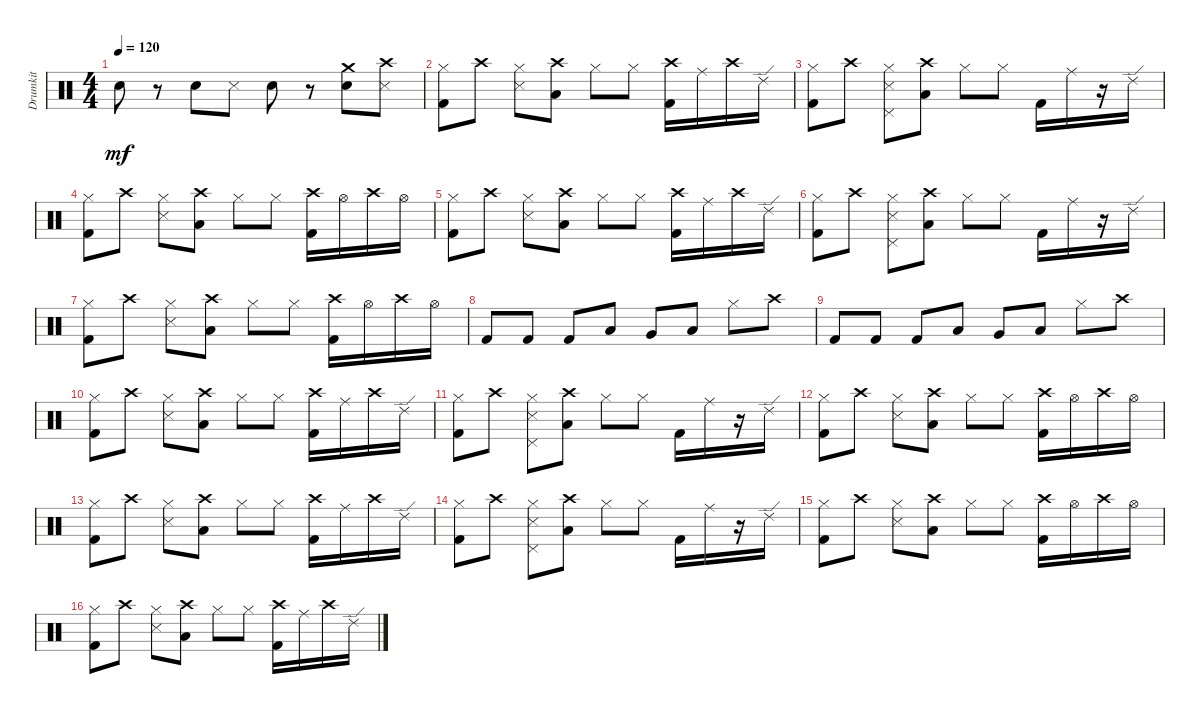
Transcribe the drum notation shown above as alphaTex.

\track ("Drumkit" "Drumkit") {instrument percussion}
\staff {score}
\articulation defaults
\ts (4 4)
\tempo 120
\clef neutral
\ks c "Snare (hit) 2".8{dy mf}
r.8 "Snare (hit) 2".8 "Snare (side stick) 3".8 "Snare (hit) 2".8 r.8 ("Snare (hit) 2" "Crash medium (hit)").8 ("Snare (side stick) 3" "Crash high (hit)").8 |
("Hi-Hat (closed)" "Kick (hit) 2").8 "Crash high (hit)".8 ("Hi-Hat (closed)" "Snare (side stick) 3").8 ("Crash high (hit)" "Low Floor Tom (hit)").8 "Hi-Hat (closed)".8 "Hi-Hat (closed)".8 ("Crash high (hit)" "Kick (hit) 2").16 "Ride (middle)".16 "Crash high (hit)".16 "Ride (edge) 2".16 |
("Hi-Hat (closed)" "Kick (hit) 2").8 "Crash high (hit)".8 ("Hi-Hat (closed)" "Snare (side stick) 3" "Pedal Hi-Hat (hit)").8 ("Crash high (hit)" "Low Floor Tom (hit)").8 "Hi-Hat (closed)".8 "Hi-Hat (closed)".8 "Kick (hit) 2".16 "Ride (middle)".16 r.16 "Ride (edge) 2".16 |
("Hi-Hat (closed)" "Kick (hit) 2").8 "Crash high (hit)".8 ("Hi-Hat (closed)" "Snare (side stick) 3").8 ("Crash high (hit)" "Low Floor Tom (hit)").8 "Hi-Hat (closed)".8 "Hi-Hat (closed)".8 ("Crash high (hit)" "Kick (hit) 2").16 "Hi-Hat (open)".16 "Crash high (hit)".16 "Hi-Hat (open)".16 |
("Hi-Hat (closed)" "Kick (hit) 2").8 "Crash high (hit)".8 ("Hi-Hat (closed)" "Snare (side stick) 3").8 ("Crash high (hit)" "Low Floor Tom (hit)").8 "Hi-Hat (closed)".8 "Hi-Hat (closed)".8 ("Crash high (hit)" "Kick (hit) 2").16 "Ride (middle)".16 "Crash high (hit)".16 "Ride (edge) 2".16 |
("Hi-Hat (closed)" "Kick (hit) 2").8 "Crash high (hit)".8 ("Hi-Hat (closed)" "Snare (side stick) 3" "Pedal Hi-Hat (hit)").8 ("Crash high (hit)" "Low Floor Tom (hit)").8 "Hi-Hat (closed)".8 "Hi-Hat (closed)".8 "Kick (hit) 2".16 "Ride (middle)".16 r.16 "Ride (edge) 2".16 |
("Hi-Hat (closed)" "Kick (hit) 2").8 "Crash high (hit)".8 ("Hi-Hat (closed)" "Snare (side stick) 3").8 ("Crash high (hit)" "Low Floor Tom (hit)").8 "Hi-Hat (closed)".8 "Hi-Hat (closed)".8 ("Crash high (hit)" "Kick (hit) 2").16 "Hi-Hat (open)".16 "Crash high (hit)".16 "Hi-Hat (open)".16 |
"Kick (hit) 2".8 "Kick (hit) 2".8 "Kick (hit) 2".8 "Low Floor Tom (hit)".8 "Very Low Tom (hit)".8 "Low Tom (hit)".8 "Hi-Hat (closed)".8 "Crash high (hit)".8 |
"Kick (hit) 2".8 "Kick (hit) 2".8 "Kick (hit) 2".8 "Low Floor Tom (hit)".8 "Very Low Tom (hit)".8 "Low Tom (hit)".8 "Hi-Hat (closed)".8 "Crash high (hit)".8 |
("Hi-Hat (closed)" "Kick (hit) 2").8 "Crash high (hit)".8 ("Hi-Hat (closed)" "Snare (side stick) 3").8 ("Crash high (hit)" "Low Floor Tom (hit)").8 "Hi-Hat (closed)".8 "Hi-Hat (closed)".8 ("Crash high (hit)" "Kick (hit) 2").16 "Ride (middle)".16 "Crash high (hit)".16 "Ride (edge) 2".16 |
("Hi-Hat (closed)" "Kick (hit) 2").8 "Crash high (hit)".8 ("Hi-Hat (closed)" "Snare (side stick) 3" "Pedal Hi-Hat (hit)").8 ("Crash high (hit)" "Low Floor Tom (hit)").8 "Hi-Hat (closed)".8 "Hi-Hat (closed)".8 "Kick (hit) 2".16 "Ride (middle)".16 r.16 "Ride (edge) 2".16 |
("Hi-Hat (closed)" "Kick (hit) 2").8 "Crash high (hit)".8 ("Hi-Hat (closed)" "Snare (side stick) 3").8 ("Crash high (hit)" "Low Floor Tom (hit)").8 "Hi-Hat (closed)".8 "Hi-Hat (closed)".8 ("Crash high (hit)" "Kick (hit) 2").16 "Hi-Hat (open)".16 "Crash high (hit)".16 "Hi-Hat (open)".16 |
("Hi-Hat (closed)" "Kick (hit) 2").8 "Crash high (hit)".8 ("Hi-Hat (closed)" "Snare (side stick) 3").8 ("Crash high (hit)" "Low Floor Tom (hit)").8 "Hi-Hat (closed)".8 "Hi-Hat (closed)".8 ("Crash high (hit)" "Kick (hit) 2").16 "Ride (middle)".16 "Crash high (hit)".16 "Ride (edge) 2".16 |
("Hi-Hat (closed)" "Kick (hit) 2").8 "Crash high (hit)".8 ("Hi-Hat (closed)" "Snare (side stick) 3" "Pedal Hi-Hat (hit)").8 ("Crash high (hit)" "Low Floor Tom (hit)").8 "Hi-Hat (closed)".8 "Hi-Hat (closed)".8 "Kick (hit) 2".16 "Ride (middle)".16 r.16 "Ride (edge) 2".16 |
("Hi-Hat (closed)" "Kick (hit) 2").8 "Crash high (hit)".8 ("Hi-Hat (closed)" "Snare (side stick) 3").8 ("Crash high (hit)" "Low Floor Tom (hit)").8 "Hi-Hat (closed)".8 "Hi-Hat (closed)".8 ("Crash high (hit)" "Kick (hit) 2").16 "Hi-Hat (open)".16 "Crash high (hit)".16 "Hi-Hat (open)".16 |
("Hi-Hat (closed)" "Kick (hit) 2").8 "Crash high (hit)".8 ("Hi-Hat (closed)" "Snare (side stick) 3").8 ("Crash high (hit)" "Low Floor Tom (hit)").8 "Hi-Hat (closed)".8 "Hi-Hat (closed)".8 ("Crash high (hit)" "Kick (hit) 2").16 "Ride (middle)".16 "Crash high (hit)".16 "Ride (edge) 2".16
